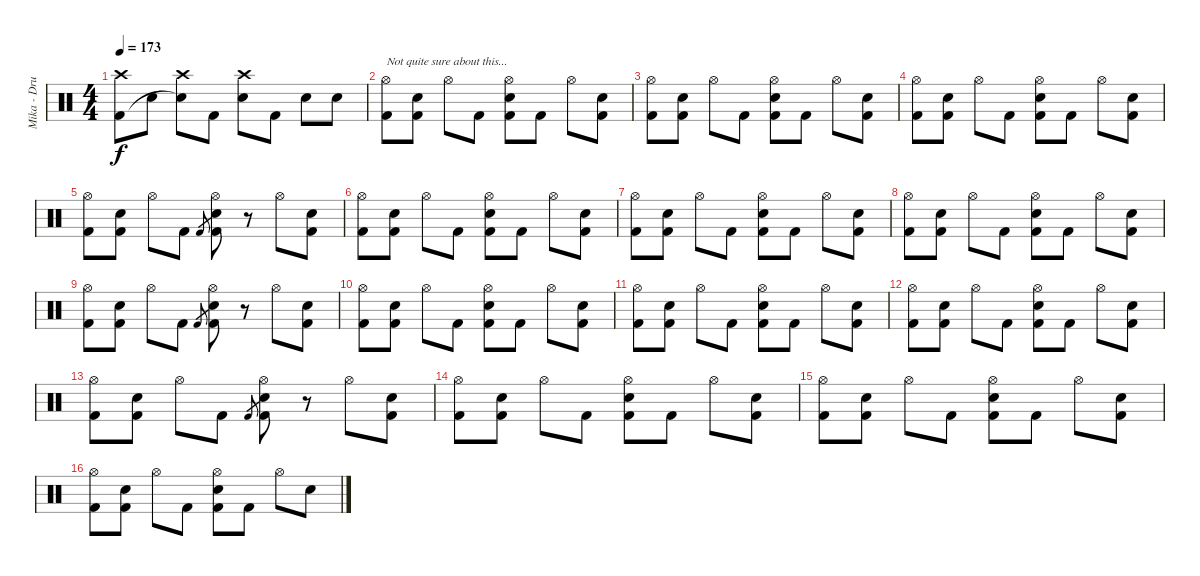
\track ("Mika - Drums" "Mika - Dru") {instrument percussion}
\staff {score}
\articulation defaults
\ts (4 4)
\tempo 173
\clef neutral
\ks c
("Crash high (hit)" "Kick (hit) 2").8{dy f} "Electric Snare (hit)".8 ("Crash high (hit)" "Snare (hit)"{t}).8 "Kick (hit) 2".8 ("Crash high (hit)" "Electric Snare (hit)").8 "Kick (hit) 2".8 "Electric Snare (hit)".8 "Electric Snare (hit)".8 |
("Hi-Hat (open)" "Kick (hit) 2").8{txt "Not quite sure about this..."} ("Electric Snare (hit)" "Kick (hit) 2").8 "Hi-Hat (open)".8 "Kick (hit) 2".8 ("Hi-Hat (open)" "Electric Snare (hit)" "Kick (hit) 2").8 "Kick (hit) 2".8 "Hi-Hat (open)".8 ("Electric Snare (hit)" "Kick (hit) 2").8 |
("Hi-Hat (open)" "Kick (hit) 2").8 ("Electric Snare (hit)" "Kick (hit) 2").8 "Hi-Hat (open)".8 "Kick (hit) 2".8 ("Hi-Hat (open)" "Electric Snare (hit)" "Kick (hit) 2").8 "Kick (hit) 2".8 "Hi-Hat (open)".8 ("Electric Snare (hit)" "Kick (hit) 2").8 |
("Hi-Hat (open)" "Kick (hit) 2").8 ("Electric Snare (hit)" "Kick (hit) 2").8 "Hi-Hat (open)".8 "Kick (hit) 2".8 ("Hi-Hat (open)" "Electric Snare (hit)" "Kick (hit) 2").8 "Kick (hit) 2".8 "Hi-Hat (open)".8 ("Electric Snare (hit)" "Kick (hit) 2").8 |
("Hi-Hat (open)" "Kick (hit) 2").8 ("Electric Snare (hit)" "Kick (hit) 2").8 "Hi-Hat (open)".8 "Kick (hit) 2".8 "Kick (hit) 2".8{gr} ("Hi-Hat (open)" "Electric Snare (hit)" "Kick (hit) 2").8 r.8 "Hi-Hat (open)".8 ("Electric Snare (hit)" "Kick (hit) 2").8 |
("Hi-Hat (open)" "Kick (hit) 2").8 ("Electric Snare (hit)" "Kick (hit) 2").8 "Hi-Hat (open)".8 "Kick (hit) 2".8 ("Hi-Hat (open)" "Electric Snare (hit)" "Kick (hit) 2").8 "Kick (hit) 2".8 "Hi-Hat (open)".8 ("Electric Snare (hit)" "Kick (hit) 2").8 |
("Hi-Hat (open)" "Kick (hit) 2").8 ("Electric Snare (hit)" "Kick (hit) 2").8 "Hi-Hat (open)".8 "Kick (hit) 2".8 ("Hi-Hat (open)" "Electric Snare (hit)" "Kick (hit) 2").8 "Kick (hit) 2".8 "Hi-Hat (open)".8 ("Electric Snare (hit)" "Kick (hit) 2").8 |
("Hi-Hat (open)" "Kick (hit) 2").8 ("Electric Snare (hit)" "Kick (hit) 2").8 "Hi-Hat (open)".8 "Kick (hit) 2".8 ("Hi-Hat (open)" "Electric Snare (hit)" "Kick (hit) 2").8 "Kick (hit) 2".8 "Hi-Hat (open)".8 ("Electric Snare (hit)" "Kick (hit) 2").8 |
("Hi-Hat (open)" "Kick (hit) 2").8 ("Electric Snare (hit)" "Kick (hit) 2").8 "Hi-Hat (open)".8 "Kick (hit) 2".8 "Kick (hit) 2".8{gr} ("Hi-Hat (open)" "Electric Snare (hit)" "Kick (hit) 2").8 r.8 "Hi-Hat (open)".8 ("Electric Snare (hit)" "Kick (hit) 2").8 |
("Hi-Hat (open)" "Kick (hit) 2").8 ("Electric Snare (hit)" "Kick (hit) 2").8 "Hi-Hat (open)".8 "Kick (hit) 2".8 ("Hi-Hat (open)" "Electric Snare (hit)" "Kick (hit) 2").8 "Kick (hit) 2".8 "Hi-Hat (open)".8 ("Electric Snare (hit)" "Kick (hit) 2").8 |
("Hi-Hat (open)" "Kick (hit) 2").8 ("Electric Snare (hit)" "Kick (hit) 2").8 "Hi-Hat (open)".8 "Kick (hit) 2".8 ("Hi-Hat (open)" "Electric Snare (hit)" "Kick (hit) 2").8 "Kick (hit) 2".8 "Hi-Hat (open)".8 ("Electric Snare (hit)" "Kick (hit) 2").8 |
("Hi-Hat (open)" "Kick (hit) 2").8 ("Electric Snare (hit)" "Kick (hit) 2").8 "Hi-Hat (open)".8 "Kick (hit) 2".8 ("Hi-Hat (open)" "Electric Snare (hit)" "Kick (hit) 2").8 "Kick (hit) 2".8 "Hi-Hat (open)".8 ("Electric Snare (hit)" "Kick (hit) 2").8 |
("Hi-Hat (open)" "Kick (hit) 2").8 ("Electric Snare (hit)" "Kick (hit) 2").8 "Hi-Hat (open)".8 "Kick (hit) 2".8 "Kick (hit) 2".8{gr} ("Hi-Hat (open)" "Electric Snare (hit)" "Kick (hit) 2").8 r.8 "Hi-Hat (open)".8 ("Electric Snare (hit)" "Kick (hit) 2").8 |
("Hi-Hat (open)" "Kick (hit) 2").8 ("Electric Snare (hit)" "Kick (hit) 2").8 "Hi-Hat (open)".8 "Kick (hit) 2".8 ("Hi-Hat (open)" "Electric Snare (hit)" "Kick (hit) 2").8 "Kick (hit) 2".8 "Hi-Hat (open)".8 ("Electric Snare (hit)" "Kick (hit) 2").8 |
("Hi-Hat (open)" "Kick (hit) 2").8 ("Electric Snare (hit)" "Kick (hit) 2").8 "Hi-Hat (open)".8 "Kick (hit) 2".8 ("Hi-Hat (open)" "Electric Snare (hit)" "Kick (hit) 2").8 "Kick (hit) 2".8 "Hi-Hat (open)".8 ("Electric Snare (hit)" "Kick (hit) 2").8 |
("Hi-Hat (open)" "Kick (hit) 2").8 ("Electric Snare (hit)" "Kick (hit) 2").8 "Hi-Hat (open)".8 "Kick (hit) 2".8 ("Hi-Hat (open)" "Electric Snare (hit)" "Kick (hit) 2").8 "Kick (hit) 2".8 "Hi-Hat (open)".8 "Electric Snare (hit)".8
